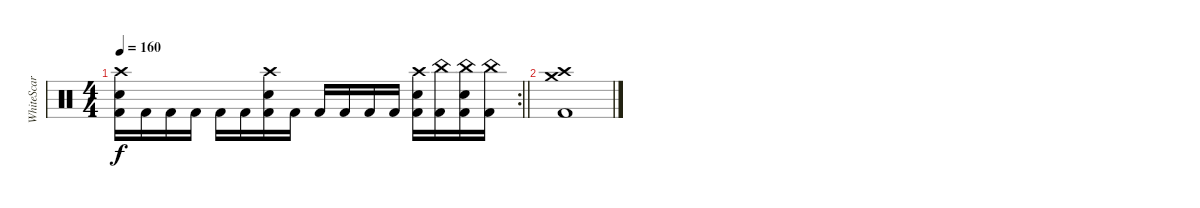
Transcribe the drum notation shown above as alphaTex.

\track ("WhiteScar" "WhiteScar") {instrument percussion}
\staff {score}
\articulation defaults
\rc 2
\ts (4 4)
\tempo 160
\clef neutral
\barLineRight lightlight
\ks c
("Crash high (hit)" "Snare (hit) 2" "Kick (hit) 2").16{dy f} "Kick (hit) 2".16 "Kick (hit) 2".16 "Kick (hit) 2".16 "Kick (hit) 2".16 "Kick (hit) 2".16 ("Crash high (hit)" "Snare (hit) 2" "Kick (hit) 2").16 "Kick (hit) 2".16 "Kick (hit) 2".16 "Kick (hit) 2".16 "Kick (hit) 2".16 "Kick (hit) 2".16 ("Crash high (hit)" "Snare (hit) 2" "Kick (hit) 2").16 ("China (hit)" "Kick (hit) 2").16 ("China (hit)" "Snare (hit) 2" "Kick (hit) 2").16 ("China (hit)" "Kick (hit) 2").16 |
("Crash high (hit)" "Crash medium (hit)" "Kick (hit) 2").1
